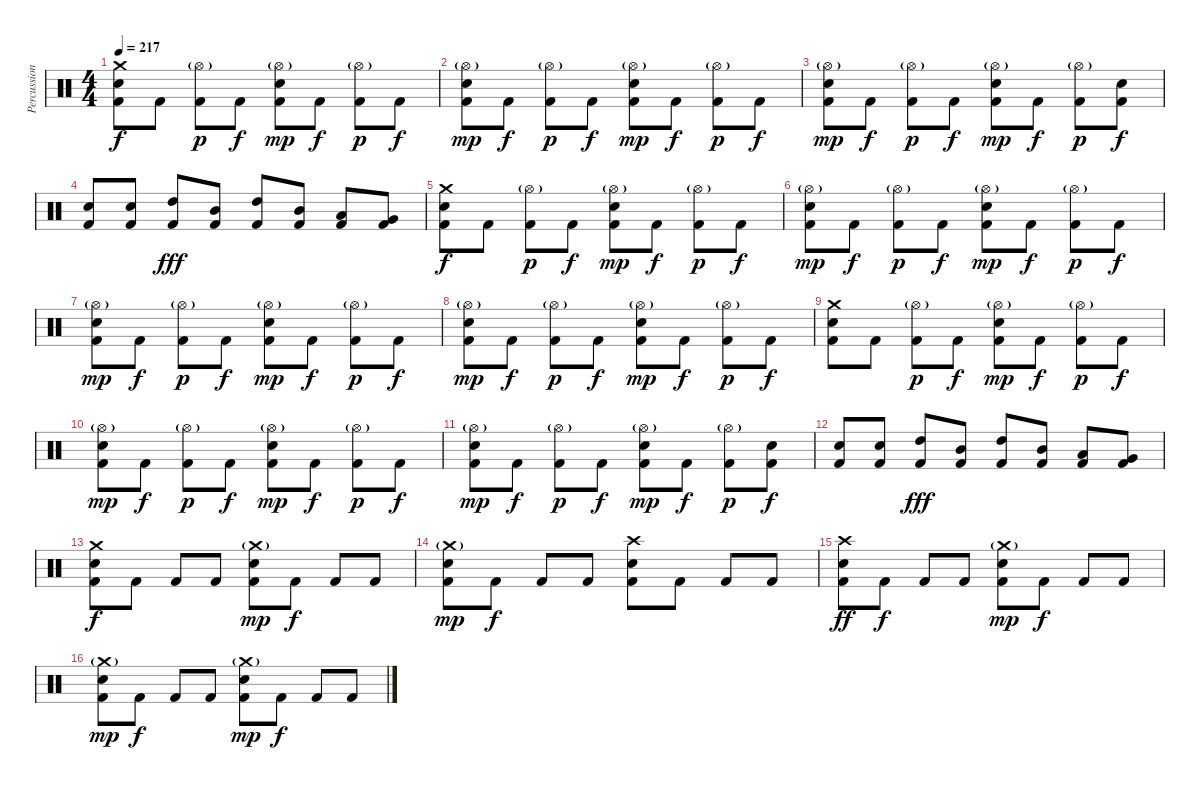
\track ("Percussion" "Percussion") {instrument percussion}
\staff {score}
\articulation defaults
\ts (4 4)
\tempo 217
\clef neutral
\ks c
("Crash medium (hit)" "Electric Snare (hit)" "Kick (hit) 2").8{dy f} "Kick (hit) 2".8 ("Hi-Hat (open)"{g} "Kick (hit) 2").8{dy p} "Kick (hit) 2".8{dy f} ("Hi-Hat (open)"{g} "Electric Snare (hit)" "Kick (hit) 2").8{dy mp} "Kick (hit) 2".8{dy f} ("Hi-Hat (open)"{g} "Kick (hit) 2").8{dy p} "Kick (hit) 2".8{dy f} |
("Hi-Hat (open)"{g} "Electric Snare (hit)" "Kick (hit) 2").8{dy mp} "Kick (hit) 2".8{dy f} ("Hi-Hat (open)"{g} "Kick (hit) 2").8{dy p} "Kick (hit) 2".8{dy f} ("Hi-Hat (open)"{g} "Electric Snare (hit)" "Kick (hit) 2").8{dy mp} "Kick (hit) 2".8{dy f} ("Hi-Hat (open)"{g} "Kick (hit) 2").8{dy p} "Kick (hit) 2".8{dy f} |
("Hi-Hat (open)"{g} "Electric Snare (hit)" "Kick (hit) 2").8{dy mp} "Kick (hit) 2".8{dy f} ("Hi-Hat (open)"{g} "Kick (hit) 2").8{dy p} "Kick (hit) 2".8{dy f} ("Hi-Hat (open)"{g} "Electric Snare (hit)" "Kick (hit) 2").8{dy mp} "Kick (hit) 2".8{dy f} ("Hi-Hat (open)"{g} "Kick (hit) 2").8{dy p} ("Electric Snare (hit)" "Kick (hit) 2").8{dy f} |
("Electric Snare (hit)" "Kick (hit) 2").8 ("Electric Snare (hit)" "Kick (hit) 2").8 ("High Tom (hit)" "Kick (hit) 2").8{dy fff} ("Mid Tom (hit)" "Kick (hit) 2").8 ("High Tom (hit)" "Kick (hit) 2").8 ("Mid Tom (hit)" "Kick (hit) 2").8 ("Low Tom (hit)" "Kick (hit) 2").8 ("Very Low Tom (hit)" "Kick (hit) 2").8 |
("Crash medium (hit)" "Electric Snare (hit)" "Kick (hit) 2").8{dy f} "Kick (hit) 2".8 ("Hi-Hat (open)"{g} "Kick (hit) 2").8{dy p} "Kick (hit) 2".8{dy f} ("Hi-Hat (open)"{g} "Electric Snare (hit)" "Kick (hit) 2").8{dy mp} "Kick (hit) 2".8{dy f} ("Hi-Hat (open)"{g} "Kick (hit) 2").8{dy p} "Kick (hit) 2".8{dy f} |
("Hi-Hat (open)"{g} "Electric Snare (hit)" "Kick (hit) 2").8{dy mp} "Kick (hit) 2".8{dy f} ("Hi-Hat (open)"{g} "Kick (hit) 2").8{dy p} "Kick (hit) 2".8{dy f} ("Hi-Hat (open)"{g} "Electric Snare (hit)" "Kick (hit) 2").8{dy mp} "Kick (hit) 2".8{dy f} ("Hi-Hat (open)"{g} "Kick (hit) 2").8{dy p} "Kick (hit) 2".8{dy f} |
("Hi-Hat (open)"{g} "Electric Snare (hit)" "Kick (hit) 2").8{dy mp} "Kick (hit) 2".8{dy f} ("Hi-Hat (open)"{g} "Kick (hit) 2").8{dy p} "Kick (hit) 2".8{dy f} ("Hi-Hat (open)"{g} "Electric Snare (hit)" "Kick (hit) 2").8{dy mp} "Kick (hit) 2".8{dy f} ("Hi-Hat (open)"{g} "Kick (hit) 2").8{dy p} "Kick (hit) 2".8{dy f} |
("Hi-Hat (open)"{g} "Electric Snare (hit)" "Kick (hit) 2").8{dy mp} "Kick (hit) 2".8{dy f} ("Hi-Hat (open)"{g} "Kick (hit) 2").8{dy p} "Kick (hit) 2".8{dy f} ("Hi-Hat (open)"{g} "Electric Snare (hit)" "Kick (hit) 2").8{dy mp} "Kick (hit) 2".8{dy f} ("Hi-Hat (open)"{g} "Kick (hit) 2").8{dy p} "Kick (hit) 2".8{dy f} |
("Crash medium (hit)" "Electric Snare (hit)" "Kick (hit) 2").8 "Kick (hit) 2".8 ("Hi-Hat (open)"{g} "Kick (hit) 2").8{dy p} "Kick (hit) 2".8{dy f} ("Hi-Hat (open)"{g} "Electric Snare (hit)" "Kick (hit) 2").8{dy mp} "Kick (hit) 2".8{dy f} ("Hi-Hat (open)"{g} "Kick (hit) 2").8{dy p} "Kick (hit) 2".8{dy f} |
("Hi-Hat (open)"{g} "Electric Snare (hit)" "Kick (hit) 2").8{dy mp} "Kick (hit) 2".8{dy f} ("Hi-Hat (open)"{g} "Kick (hit) 2").8{dy p} "Kick (hit) 2".8{dy f} ("Hi-Hat (open)"{g} "Electric Snare (hit)" "Kick (hit) 2").8{dy mp} "Kick (hit) 2".8{dy f} ("Hi-Hat (open)"{g} "Kick (hit) 2").8{dy p} "Kick (hit) 2".8{dy f} |
("Hi-Hat (open)"{g} "Electric Snare (hit)" "Kick (hit) 2").8{dy mp} "Kick (hit) 2".8{dy f} ("Hi-Hat (open)"{g} "Kick (hit) 2").8{dy p} "Kick (hit) 2".8{dy f} ("Hi-Hat (open)"{g} "Electric Snare (hit)" "Kick (hit) 2").8{dy mp} "Kick (hit) 2".8{dy f} ("Hi-Hat (open)"{g} "Kick (hit) 2").8{dy p} ("Electric Snare (hit)" "Kick (hit) 2").8{dy f} |
("Electric Snare (hit)" "Kick (hit) 2").8 ("Electric Snare (hit)" "Kick (hit) 2").8 ("High Tom (hit)" "Kick (hit) 2").8{dy fff} ("Mid Tom (hit)" "Kick (hit) 2").8 ("High Tom (hit)" "Kick (hit) 2").8 ("Mid Tom (hit)" "Kick (hit) 2").8 ("Low Tom (hit)" "Kick (hit) 2").8 ("Very Low Tom (hit)" "Kick (hit) 2").8 |
("Crash medium (hit)" "Electric Snare (hit)" "Kick (hit) 2").8{dy f} "Kick (hit) 2".8 "Kick (hit) 2".8 "Kick (hit) 2".8 ("Crash medium (hit)"{g} "Electric Snare (hit)" "Kick (hit) 2").8{dy mp} "Kick (hit) 2".8{dy f} "Kick (hit) 2".8 "Kick (hit) 2".8 |
("Crash medium (hit)"{g} "Electric Snare (hit)" "Kick (hit) 2").8{dy mp} "Kick (hit) 2".8{dy f} "Kick (hit) 2".8 "Kick (hit) 2".8 ("Crash high (hit)" "Electric Snare (hit)" "Kick (hit) 2").8 "Kick (hit) 2".8 "Kick (hit) 2".8 "Kick (hit) 2".8 |
("Crash high (hit)" "Electric Snare (hit)" "Kick (hit) 2").8{dy ff} "Kick (hit) 2".8{dy f} "Kick (hit) 2".8 "Kick (hit) 2".8 ("Crash medium (hit)"{g} "Electric Snare (hit)" "Kick (hit) 2").8{dy mp} "Kick (hit) 2".8{dy f} "Kick (hit) 2".8 "Kick (hit) 2".8 |
("Crash medium (hit)"{g} "Electric Snare (hit)" "Kick (hit) 2").8{dy mp} "Kick (hit) 2".8{dy f} "Kick (hit) 2".8 "Kick (hit) 2".8 ("Crash medium (hit)"{g} "Electric Snare (hit)" "Kick (hit) 2").8{dy mp} "Kick (hit) 2".8{dy f} "Kick (hit) 2".8 "Kick (hit) 2".8
